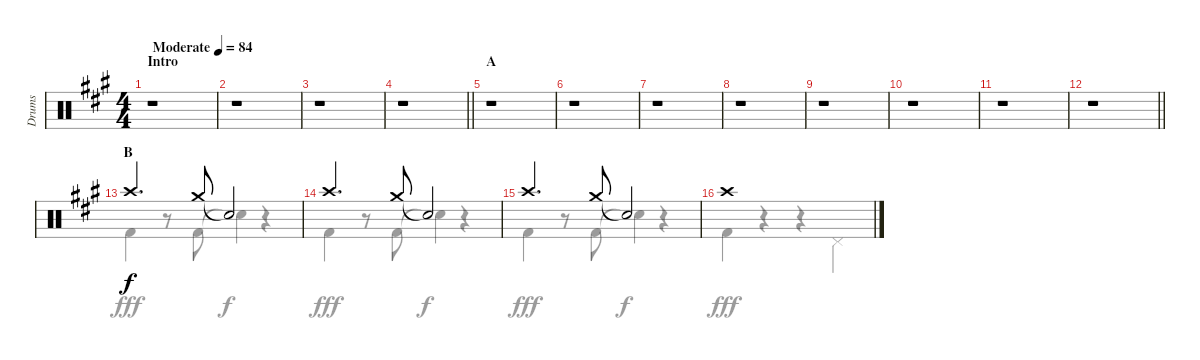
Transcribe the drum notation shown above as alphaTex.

\track ("Drums" "Drums") {instrument percussion}
\staff {score}
\articulation defaults
\voice
\ts (4 4)
\section ("" "Intro")
\tempo (84 "Moderate")
\clef neutral
\ks a
r.1{dy f} |
r.1 |
r.1 |
\barLineRight lightlight
r.1 |
\section ("" "A")
r.1 |
r.1 |
r.1 |
r.1 |
r.1 |
r.1 |
r.1 |
\barLineRight lightlight
r.1 |
\section ("" "B")
"Crash high (hit)".4{d} "Crash medium (hit)".8 "Snare (hit)"{t}.2 |
"Crash high (hit)".4{d} "Crash medium (hit)".8 "Snare (hit)"{t}.2 |
"Crash high (hit)".4{d} "Crash medium (hit)".8 "Snare (hit)"{t}.2 |
"Crash high (hit)".1
\voice
\clef neutral
\ottava regular
\simile none
\ks a
r.1{dy fff} |
r.1 |
r.1 |
\barLineRight lightlight
r.1 |
r.1 |
r.1 |
r.1 |
r.1 |
r.1 |
r.1 |
r.1 |
\barLineRight lightlight
r.1 |
"Kick (hit) 2".4 r.8 "Kick (hit) 2".8 "Snare (hit)"{t}.4{dy f} r.4 |
"Kick (hit) 2".4{dy fff} r.8 "Kick (hit) 2".8 "Snare (hit)"{t}.4{dy f} r.4 |
"Kick (hit) 2".4{dy fff} r.8 "Kick (hit) 2".8 "Snare (hit)"{t}.4{dy f} r.4 |
"Kick (hit) 2".4{dy fff} r.4 r.4 "Pedal Hi-Hat (hit)".4
